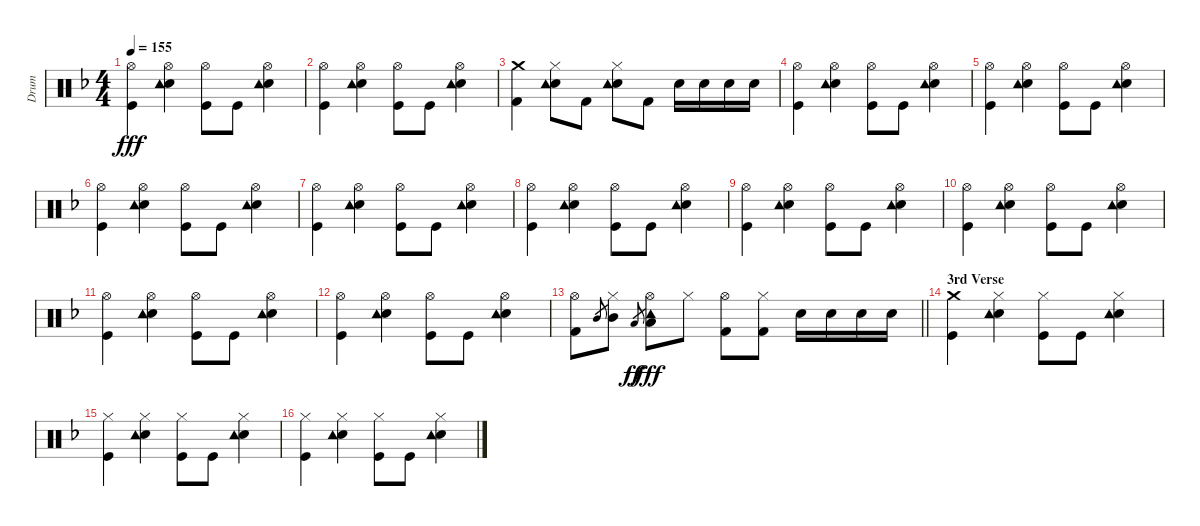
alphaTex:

\track ("Drum" "Drum") {instrument percussion}
\staff {score}
\articulation defaults
\ts (4 4)
\tempo 155
\clef neutral
\ks f
("Hi-Hat (open)" "Kick (hit)").4{dy fff} ("Hi-Hat (open)" "Electric Snare (hit)" "Tambourine (hit)").4 ("Hi-Hat (open)" "Kick (hit)").8 "Kick (hit)".8 ("Hi-Hat (open)" "Electric Snare (hit)" "Tambourine (hit)").4 |
("Hi-Hat (open)" "Kick (hit)").4 ("Hi-Hat (open)" "Electric Snare (hit)" "Tambourine (hit)").4 ("Hi-Hat (open)" "Kick (hit)").8 "Kick (hit)".8 ("Hi-Hat (open)" "Electric Snare (hit)" "Tambourine (hit)").4 |
("Crash medium (hit)" "Kick (hit) 2").4 ("Hi-Hat (closed)" "Electric Snare (hit)" "Tambourine (hit)").8 "Kick (hit) 2".8 ("Hi-Hat (closed)" "Electric Snare (hit)" "Tambourine (hit)").8 "Kick (hit) 2".8 "Electric Snare (hit)".16 "Electric Snare (hit)".16 "Electric Snare (hit)".16 "Electric Snare (hit)".16 |
("Hi-Hat (open)" "Kick (hit)").4 ("Hi-Hat (open)" "Electric Snare (hit)" "Tambourine (hit)").4 ("Hi-Hat (open)" "Kick (hit)").8 "Kick (hit)".8 ("Hi-Hat (open)" "Electric Snare (hit)" "Tambourine (hit)").4 |
("Hi-Hat (open)" "Kick (hit)").4 ("Hi-Hat (open)" "Electric Snare (hit)" "Tambourine (hit)").4 ("Hi-Hat (open)" "Kick (hit)").8 "Kick (hit)".8 ("Hi-Hat (open)" "Electric Snare (hit)" "Tambourine (hit)").4 |
("Hi-Hat (open)" "Kick (hit)").4 ("Hi-Hat (open)" "Electric Snare (hit)" "Tambourine (hit)").4 ("Hi-Hat (open)" "Kick (hit)").8 "Kick (hit)".8 ("Hi-Hat (open)" "Electric Snare (hit)" "Tambourine (hit)").4 |
("Hi-Hat (open)" "Kick (hit)").4 ("Hi-Hat (open)" "Electric Snare (hit)" "Tambourine (hit)").4 ("Hi-Hat (open)" "Kick (hit)").8 "Kick (hit)".8 ("Hi-Hat (open)" "Electric Snare (hit)" "Tambourine (hit)").4 |
("Hi-Hat (open)" "Kick (hit)").4 ("Hi-Hat (open)" "Electric Snare (hit)" "Tambourine (hit)").4 ("Hi-Hat (open)" "Kick (hit)").8 "Kick (hit)".8 ("Hi-Hat (open)" "Electric Snare (hit)" "Tambourine (hit)").4 |
("Hi-Hat (open)" "Kick (hit)").4 ("Hi-Hat (open)" "Electric Snare (hit)" "Tambourine (hit)").4 ("Hi-Hat (open)" "Kick (hit)").8 "Kick (hit)".8 ("Hi-Hat (open)" "Electric Snare (hit)" "Tambourine (hit)").4 |
("Hi-Hat (open)" "Kick (hit)").4 ("Hi-Hat (open)" "Electric Snare (hit)" "Tambourine (hit)").4 ("Hi-Hat (open)" "Kick (hit)").8 "Kick (hit)".8 ("Hi-Hat (open)" "Electric Snare (hit)" "Tambourine (hit)").4 |
("Hi-Hat (open)" "Kick (hit)").4 ("Hi-Hat (open)" "Electric Snare (hit)" "Tambourine (hit)").4 ("Hi-Hat (open)" "Kick (hit)").8 "Kick (hit)".8 ("Hi-Hat (open)" "Electric Snare (hit)" "Tambourine (hit)").4 |
("Hi-Hat (open)" "Kick (hit)").4 ("Hi-Hat (open)" "Electric Snare (hit)" "Tambourine (hit)").4 ("Hi-Hat (open)" "Kick (hit)").8 "Kick (hit)".8 ("Hi-Hat (open)" "Electric Snare (hit)" "Tambourine (hit)").4 |
\barLineRight lightlight
("Hi-Hat (open)" "Kick (hit) 2").8 "Mid Tom (hit)".8{gr} ("Hi-Hat (closed)" "Mid Tom (hit)").8 "Low Tom (hit)".8{gr dy ff} ("Hi-Hat (open)" "Low Tom (hit)" "Tambourine (hit)").8{dy fff} "Hi-Hat (closed)".8 ("Hi-Hat (open)" "Kick (hit) 2").8 ("Hi-Hat (closed)" "Kick (hit) 2").8 "Electric Snare (hit)".16 "Electric Snare (hit)".16 "Electric Snare (hit)".16 "Electric Snare (hit)".16 |
\section ("" "3rd Verse")
("Crash medium (hit)" "Kick (hit)").4 ("Hi-Hat (closed)" "Electric Snare (hit)" "Tambourine (hit)").4 ("Hi-Hat (closed)" "Kick (hit)").8 "Kick (hit)".8 ("Hi-Hat (closed)" "Electric Snare (hit)" "Tambourine (hit)").4 |
("Hi-Hat (closed)" "Kick (hit)").4 ("Hi-Hat (closed)" "Electric Snare (hit)" "Tambourine (hit)").4 ("Hi-Hat (closed)" "Kick (hit)").8 "Kick (hit)".8 ("Hi-Hat (closed)" "Electric Snare (hit)" "Tambourine (hit)").4 |
("Hi-Hat (closed)" "Kick (hit)").4 ("Hi-Hat (closed)" "Electric Snare (hit)" "Tambourine (hit)").4 ("Hi-Hat (closed)" "Kick (hit)").8 "Kick (hit)".8 ("Hi-Hat (closed)" "Electric Snare (hit)" "Tambourine (hit)").4
